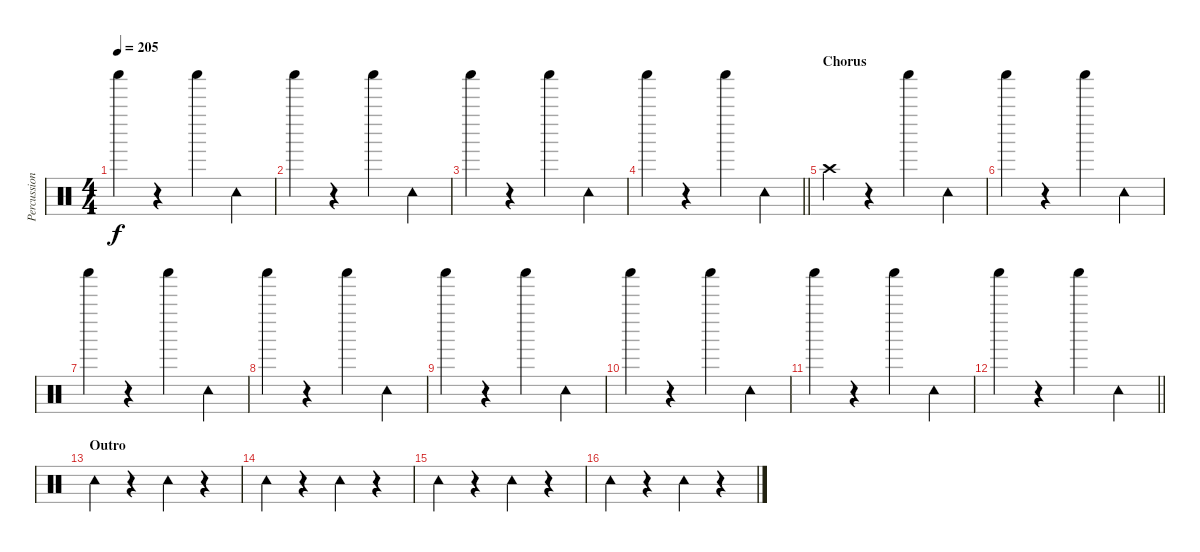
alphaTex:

\track ("Percussion" "Percussion") {instrument percussion}
\staff {score}
\articulation defaults
\ts (4 4)
\tempo 205
\clef neutral
\ks c "Shaker (hit)".4{dy f}
r.4 "Shaker (hit)".4 "Tambourine (hit)".4 |
"Shaker (hit)".4 r.4 "Shaker (hit)".4 "Tambourine (hit)".4 |
"Shaker (hit)".4 r.4 "Shaker (hit)".4 "Tambourine (hit)".4 |
\barLineRight lightlight "Shaker (hit)".4
r.4 "Shaker (hit)".4 "Tambourine (hit)".4 |
\section ("" "Chorus")
"Crash high (hit)".4 r.4 "Shaker (hit)".4 "Tambourine (hit)".4 |
"Shaker (hit)".4 r.4 "Shaker (hit)".4 "Tambourine (hit)".4 |
"Shaker (hit)".4 r.4 "Shaker (hit)".4 "Tambourine (hit)".4 |
"Shaker (hit)".4 r.4 "Shaker (hit)".4 "Tambourine (hit)".4 |
"Shaker (hit)".4 r.4 "Shaker (hit)".4 "Tambourine (hit)".4 |
"Shaker (hit)".4 r.4 "Shaker (hit)".4 "Tambourine (hit)".4 |
"Shaker (hit)".4 r.4 "Shaker (hit)".4 "Tambourine (hit)".4 |
\barLineRight lightlight "Shaker (hit)".4
r.4 "Shaker (hit)".4 "Tambourine (hit)".4 |
\section ("" "Outro")
"Tambourine (hit)".4 r.4 "Tambourine (hit)".4 r.4 |
"Tambourine (hit)".4 r.4 "Tambourine (hit)".4 r.4 |
"Tambourine (hit)".4 r.4 "Tambourine (hit)".4 r.4 |
"Tambourine (hit)".4 r.4 "Tambourine (hit)".4 r.4
